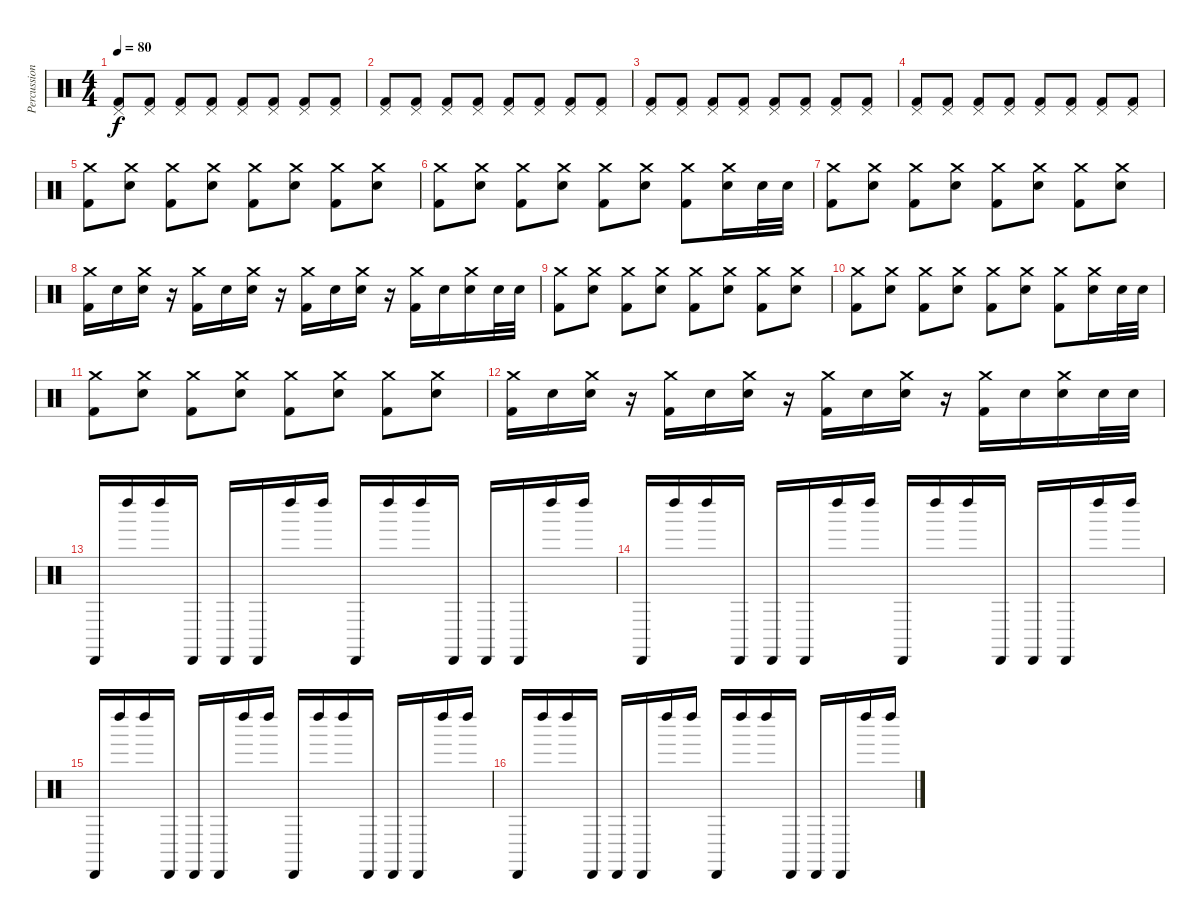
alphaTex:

\track ("Percussions" "Percussion") {instrument percussion}
\staff {score}
\articulation defaults
\ts (4 4)
\tempo 80
\clef neutral
\ks c
("Pedal Hi-Hat (hit)" "Kick (hit) 2").8{dy f} ("Pedal Hi-Hat (hit)" "Kick (hit) 2").8 ("Pedal Hi-Hat (hit)" "Kick (hit) 2").8 ("Pedal Hi-Hat (hit)" "Kick (hit) 2").8 ("Pedal Hi-Hat (hit)" "Kick (hit) 2").8 ("Pedal Hi-Hat (hit)" "Kick (hit) 2").8 ("Pedal Hi-Hat (hit)" "Kick (hit) 2").8 ("Pedal Hi-Hat (hit)" "Kick (hit) 2").8 |
("Pedal Hi-Hat (hit)" "Kick (hit) 2").8 ("Pedal Hi-Hat (hit)" "Kick (hit) 2").8 ("Pedal Hi-Hat (hit)" "Kick (hit) 2").8 ("Pedal Hi-Hat (hit)" "Kick (hit) 2").8 ("Pedal Hi-Hat (hit)" "Kick (hit) 2").8 ("Pedal Hi-Hat (hit)" "Kick (hit) 2").8 ("Pedal Hi-Hat (hit)" "Kick (hit) 2").8 ("Pedal Hi-Hat (hit)" "Kick (hit) 2").8 |
("Pedal Hi-Hat (hit)" "Kick (hit) 2").8 ("Pedal Hi-Hat (hit)" "Kick (hit) 2").8 ("Pedal Hi-Hat (hit)" "Kick (hit) 2").8 ("Pedal Hi-Hat (hit)" "Kick (hit) 2").8 ("Pedal Hi-Hat (hit)" "Kick (hit) 2").8 ("Pedal Hi-Hat (hit)" "Kick (hit) 2").8 ("Pedal Hi-Hat (hit)" "Kick (hit) 2").8 ("Pedal Hi-Hat (hit)" "Kick (hit) 2").8 |
("Pedal Hi-Hat (hit)" "Kick (hit) 2").8 ("Pedal Hi-Hat (hit)" "Kick (hit) 2").8 ("Pedal Hi-Hat (hit)" "Kick (hit) 2").8 ("Pedal Hi-Hat (hit)" "Kick (hit) 2").8 ("Pedal Hi-Hat (hit)" "Kick (hit) 2").8 ("Pedal Hi-Hat (hit)" "Kick (hit) 2").8 ("Pedal Hi-Hat (hit)" "Kick (hit) 2").8 ("Pedal Hi-Hat (hit)" "Kick (hit) 2").8 |
("Crash medium (hit)" "Kick (hit) 2").8 ("Crash medium (hit)" "Electric Snare (hit)").8 ("Crash medium (hit)" "Kick (hit) 2").8 ("Crash medium (hit)" "Electric Snare (hit)").8 ("Crash medium (hit)" "Kick (hit) 2").8 ("Crash medium (hit)" "Electric Snare (hit)").8 ("Crash medium (hit)" "Kick (hit) 2").8 ("Crash medium (hit)" "Electric Snare (hit)").8 |
("Crash medium (hit)" "Kick (hit) 2").8 ("Crash medium (hit)" "Electric Snare (hit)").8 ("Crash medium (hit)" "Kick (hit) 2").8 ("Crash medium (hit)" "Electric Snare (hit)").8 ("Crash medium (hit)" "Kick (hit) 2").8 ("Crash medium (hit)" "Electric Snare (hit)").8 ("Crash medium (hit)" "Kick (hit) 2").8 ("Crash medium (hit)" "Electric Snare (hit)").16 "Electric Snare (hit)".32 "Electric Snare (hit)".32 |
("Crash medium (hit)" "Kick (hit) 2").8 ("Crash medium (hit)" "Electric Snare (hit)").8 ("Crash medium (hit)" "Kick (hit) 2").8 ("Crash medium (hit)" "Electric Snare (hit)").8 ("Crash medium (hit)" "Kick (hit) 2").8 ("Crash medium (hit)" "Electric Snare (hit)").8 ("Crash medium (hit)" "Kick (hit) 2").8 ("Crash medium (hit)" "Electric Snare (hit)").8 |
("Crash medium (hit)" "Kick (hit) 2").16 "Electric Snare (hit)".16 ("Crash medium (hit)" "Electric Snare (hit)").16 r.16 ("Crash medium (hit)" "Kick (hit) 2").16 "Electric Snare (hit)".16 ("Crash medium (hit)" "Electric Snare (hit)").16 r.16 ("Crash medium (hit)" "Kick (hit) 2").16 "Electric Snare (hit)".16 ("Crash medium (hit)" "Electric Snare (hit)").16 r.16 ("Crash medium (hit)" "Kick (hit) 2").16 "Electric Snare (hit)".16 ("Crash medium (hit)" "Electric Snare (hit)").16 "Electric Snare (hit)".32 "Electric Snare (hit)".32 |
("Crash medium (hit)" "Kick (hit) 2").8 ("Crash medium (hit)" "Electric Snare (hit)").8 ("Crash medium (hit)" "Kick (hit) 2").8 ("Crash medium (hit)" "Electric Snare (hit)").8 ("Crash medium (hit)" "Kick (hit) 2").8 ("Crash medium (hit)" "Electric Snare (hit)").8 ("Crash medium (hit)" "Kick (hit) 2").8 ("Crash medium (hit)" "Electric Snare (hit)").8 |
("Crash medium (hit)" "Kick (hit) 2").8 ("Crash medium (hit)" "Electric Snare (hit)").8 ("Crash medium (hit)" "Kick (hit) 2").8 ("Crash medium (hit)" "Electric Snare (hit)").8 ("Crash medium (hit)" "Kick (hit) 2").8 ("Crash medium (hit)" "Electric Snare (hit)").8 ("Crash medium (hit)" "Kick (hit) 2").8 ("Crash medium (hit)" "Electric Snare (hit)").16 "Electric Snare (hit)".32 "Electric Snare (hit)".32 |
("Crash medium (hit)" "Kick (hit) 2").8 ("Crash medium (hit)" "Electric Snare (hit)").8 ("Crash medium (hit)" "Kick (hit) 2").8 ("Crash medium (hit)" "Electric Snare (hit)").8 ("Crash medium (hit)" "Kick (hit) 2").8 ("Crash medium (hit)" "Electric Snare (hit)").8 ("Crash medium (hit)" "Kick (hit) 2").8 ("Crash medium (hit)" "Electric Snare (hit)").8 |
("Crash medium (hit)" "Kick (hit) 2").16 "Electric Snare (hit)".16 ("Crash medium (hit)" "Electric Snare (hit)").16 r.16 ("Crash medium (hit)" "Kick (hit) 2").16 "Electric Snare (hit)".16 ("Crash medium (hit)" "Electric Snare (hit)").16 r.16 ("Crash medium (hit)" "Kick (hit) 2").16 "Electric Snare (hit)".16 ("Crash medium (hit)" "Electric Snare (hit)").16 r.16 ("Crash medium (hit)" "Kick (hit) 2").16 "Electric Snare (hit)".16 ("Crash medium (hit)" "Electric Snare (hit)").16 "Electric Snare (hit)".32 "Electric Snare (hit)".32 |
"Cabasa (hit)".16 "Left Maraca (hit)".16 "Left Maraca (hit)".16 "Cabasa (hit)".16 "Cabasa (hit)".16 "Cabasa (hit)".16 "Left Maraca (hit)".16 "Left Maraca (hit)".16 "Cabasa (hit)".16 "Left Maraca (hit)".16 "Left Maraca (hit)".16 "Cabasa (hit)".16 "Cabasa (hit)".16 "Cabasa (hit)".16 "Left Maraca (hit)".16 "Left Maraca (hit)".16 |
"Cabasa (hit)".16 "Left Maraca (hit)".16 "Left Maraca (hit)".16 "Cabasa (hit)".16 "Cabasa (hit)".16 "Cabasa (hit)".16 "Left Maraca (hit)".16 "Left Maraca (hit)".16 "Cabasa (hit)".16 "Left Maraca (hit)".16 "Left Maraca (hit)".16 "Cabasa (hit)".16 "Cabasa (hit)".16 "Cabasa (hit)".16 "Left Maraca (hit)".16 "Left Maraca (hit)".16 |
"Cabasa (hit)".16 "Left Maraca (hit)".16 "Left Maraca (hit)".16 "Cabasa (hit)".16 "Cabasa (hit)".16 "Cabasa (hit)".16 "Left Maraca (hit)".16 "Left Maraca (hit)".16 "Cabasa (hit)".16 "Left Maraca (hit)".16 "Left Maraca (hit)".16 "Cabasa (hit)".16 "Cabasa (hit)".16 "Cabasa (hit)".16 "Left Maraca (hit)".16 "Left Maraca (hit)".16 |
"Cabasa (hit)".16 "Left Maraca (hit)".16 "Left Maraca (hit)".16 "Cabasa (hit)".16 "Cabasa (hit)".16 "Cabasa (hit)".16 "Left Maraca (hit)".16 "Left Maraca (hit)".16 "Cabasa (hit)".16 "Left Maraca (hit)".16 "Left Maraca (hit)".16 "Cabasa (hit)".16 "Cabasa (hit)".16 "Cabasa (hit)".16 "Left Maraca (hit)".16 "Left Maraca (hit)".16
